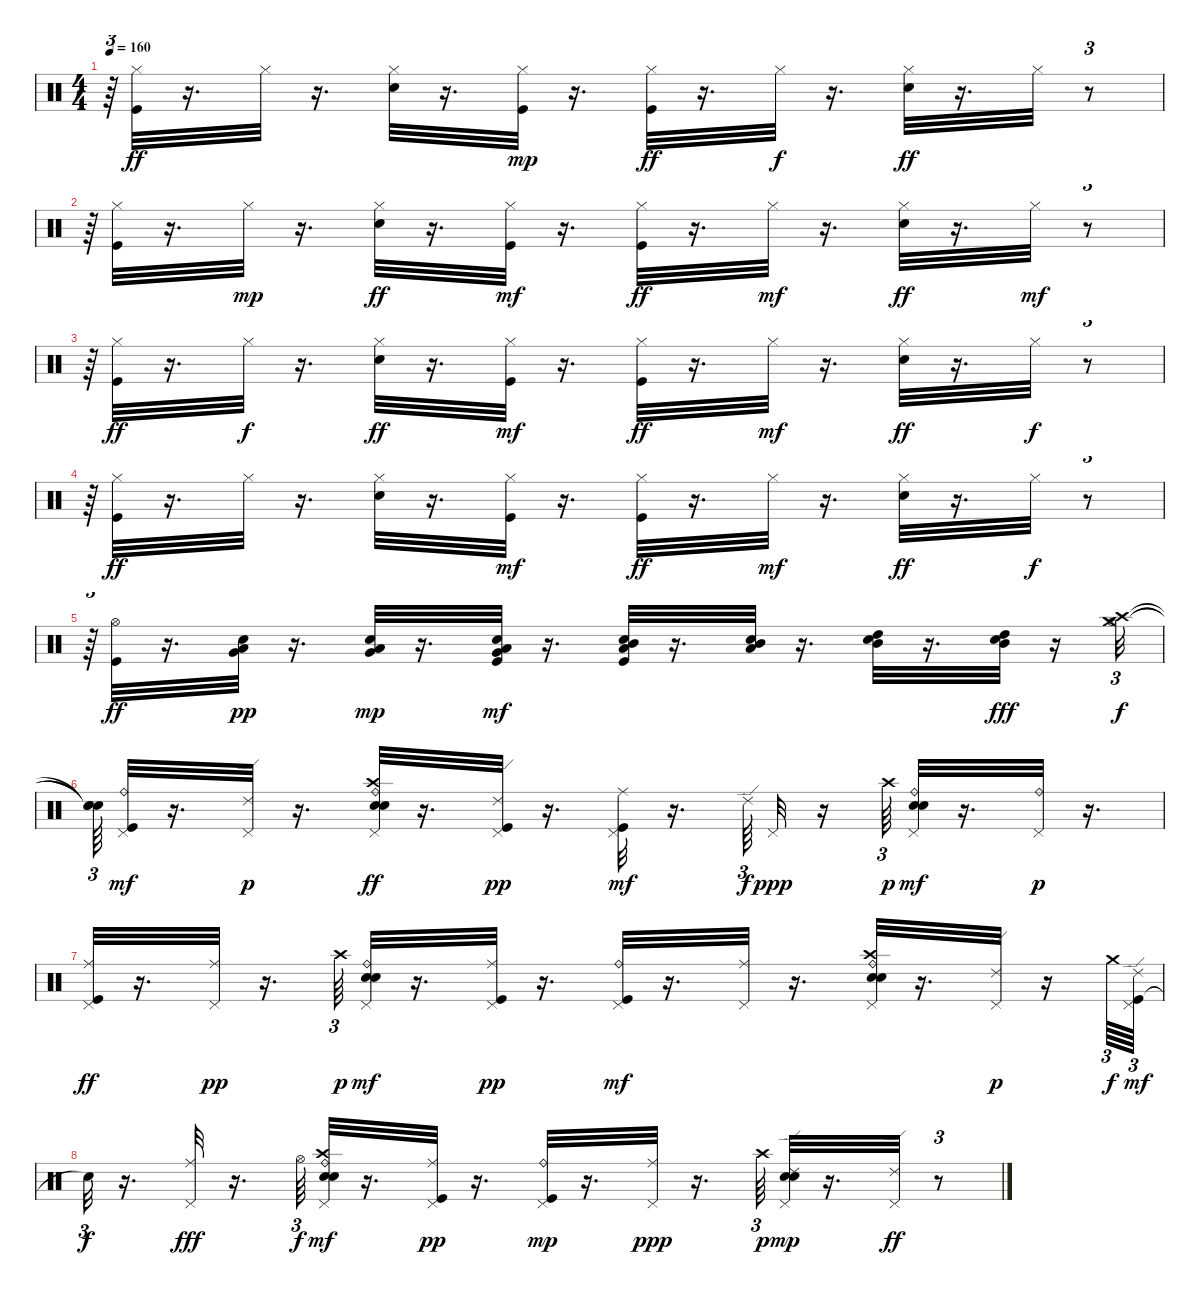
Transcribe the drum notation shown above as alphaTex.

\track "" {instrument percussion}
\staff {score}
\articulation defaults
\ts (4 4)
\tempo 160
\clef neutral
\ks c
r.64{tu (3 2) dy f} ("Kick (hit)" "Hi-Hat (closed)").32{dy ff} r.16{d} "Hi-Hat (closed)".32 r.16{d} ("Hi-Hat (closed)" "Electric Snare (hit)").32 r.16{d} ("Kick (hit)" "Hi-Hat (closed)").32{dy mp} r.16{d} ("Kick (hit)" "Hi-Hat (closed)").32{dy ff} r.16{d} "Hi-Hat (closed)".32{dy f} r.16{d} ("Hi-Hat (closed)" "Electric Snare (hit)").32{dy ff} r.16{d} "Hi-Hat (closed)".32 r.8{tu (3 2)} |
r.64{tu (3 2)} ("Kick (hit)" "Hi-Hat (closed)").32{volume 12 balance 8} r.16{d} "Hi-Hat (closed)".32{dy mp} r.16{d} ("Hi-Hat (closed)" "Electric Snare (hit)").32{dy ff} r.16{d} ("Kick (hit)" "Hi-Hat (closed)").32{dy mf} r.16{d} ("Kick (hit)" "Hi-Hat (closed)").32{dy ff} r.16{d} "Hi-Hat (closed)".32{dy mf} r.16{d} ("Hi-Hat (closed)" "Electric Snare (hit)").32{dy ff} r.16{d} "Hi-Hat (closed)".32{dy mf} r.8{tu (3 2)} |
r.64{tu (3 2)} ("Kick (hit)" "Hi-Hat (closed)").32{dy ff} r.16{d} "Hi-Hat (closed)".32{dy f} r.16{d} ("Hi-Hat (closed)" "Electric Snare (hit)").32{dy ff} r.16{d} ("Kick (hit)" "Hi-Hat (closed)").32{dy mf} r.16{d} ("Kick (hit)" "Hi-Hat (closed)").32{dy ff} r.16{d} "Hi-Hat (closed)".32{dy mf} r.16{d} ("Hi-Hat (closed)" "Electric Snare (hit)").32{dy ff} r.16{d} "Hi-Hat (closed)".32{dy f} r.8{tu (3 2)} |
r.64{tu (3 2)} ("Kick (hit)" "Hi-Hat (closed)").32{dy ff} r.16{d} "Hi-Hat (closed)".32 r.16{d} ("Hi-Hat (closed)" "Electric Snare (hit)").32 r.16{d} ("Kick (hit)" "Hi-Hat (closed)").32{dy mf} r.16{d} ("Kick (hit)" "Hi-Hat (closed)").32{dy ff} r.16{d} "Hi-Hat (closed)".32{dy mf} r.16{d} ("Hi-Hat (closed)" "Electric Snare (hit)").32{dy ff} r.16{d} "Hi-Hat (closed)".32{dy f} r.8{tu (3 2)} |
r.64{tu (3 2)} ("Kick (hit)" "Hi-Hat (open)").32{dy ff} r.16{d} ("Electric Snare (hit)" "Low Tom (hit)" "Very Low Tom (hit)").32{dy pp} r.16{d} ("Electric Snare (hit)" "Low Tom (hit)" "Very Low Tom (hit)").32{dy mp} r.16{d} ("Kick (hit)" "Electric Snare (hit)" "Low Tom (hit)" "Very Low Tom (hit)").32{dy mf} r.16{d} ("Kick (hit)" "Electric Snare (hit)" "Mid Tom (hit)" "Low Tom (hit)").32 r.16{d} ("Electric Snare (hit)" "Mid Tom (hit)" "Low Tom (hit)").32 r.16{d} ("Electric Snare (hit)" "High Tom (hit)" "Mid Tom (hit)").32 r.16{d} ("Electric Snare (hit)" "High Tom (hit)" "Mid Tom (hit)").32{dy fff} r.16 ("Crash high (hit)" "Crash medium (hit)" "Hi-Hat (open)").32{tu (3 2) dy f} |
("Snare (hit)"{t} "Snare (hit)"{t} "Snare (hit)"{t}).64{tu (3 2)} ("Kick (hit)" "Ride (bell)" "Pedal Hi-Hat (hit)").32{dy mf} r.16{d} ("Ride (edge) 2" "Pedal Hi-Hat (hit)").32{dy p} r.16{d} ("Electric Snare (hit)" "Crash high (hit)" "Snare (hit) 2" "Ride (bell)" "Pedal Hi-Hat (hit)").32{dy ff} r.16{d} ("Kick (hit)" "Ride (edge) 2" "Pedal Hi-Hat (hit)").32{dy pp} r.16{d} ("Kick (hit)" "Ride (middle)" "Pedal Hi-Hat (hit)").32{dy mf} r.16{d} "Ride (edge) 2".64{tu (3 2) dy f} "Pedal Hi-Hat (hit)".32{dy ppp} r.16 "Crash high (hit)".64{tu (3 2) dy p} ("Electric Snare (hit)" "Snare (hit) 2" "Ride (bell)" "Pedal Hi-Hat (hit)").32{dy mf} r.16{d} ("Ride (bell)" "Pedal Hi-Hat (hit)").32{dy p} r.16{d} |
("Kick (hit)" "Ride (middle)" "Pedal Hi-Hat (hit)").32{dy ff} r.16{d} ("Ride (middle)" "Pedal Hi-Hat (hit)").32{dy pp} r.16{d} "Crash high (hit)".64{tu (3 2) dy p} ("Electric Snare (hit)" "Snare (hit) 2" "Ride (bell)" "Pedal Hi-Hat (hit)").32{dy mf} r.16{d} ("Kick (hit)" "Ride (middle)" "Pedal Hi-Hat (hit)").32{dy pp} r.16{d} ("Kick (hit)" "Ride (bell)" "Pedal Hi-Hat (hit)").32{dy mf} r.16{d} ("Pedal Hi-Hat (hit)" "Ride (middle)").32 r.16{d} ("Electric Snare (hit)" "Crash high (hit)" "Snare (hit) 2" "Ride (bell)" "Pedal Hi-Hat (hit)").32 r.16{d} ("Ride (edge) 2" "Pedal Hi-Hat (hit)").32{dy p} r.16 "Crash medium (hit)".64{tu (3 2) dy f} ("Kick (hit)" "Ride (edge) 2" "Pedal Hi-Hat (hit)").64{tu (3 2) dy mf} |
"Snare (hit)"{t}.32{tu (3 2) dy f} r.16{d} ("Pedal Hi-Hat (hit)" "Ride (middle)").32{dy fff} r.16{d} "Hi-Hat (open)".64{tu (3 2) dy f} ("Electric Snare (hit)" "Crash high (hit)" "Snare (hit) 2" "Ride (bell)" "Pedal Hi-Hat (hit)").32{dy mf} r.16{d} ("Kick (hit)" "Ride (middle)" "Pedal Hi-Hat (hit)").32{dy pp} r.16{d} ("Kick (hit)" "Ride (bell)" "Pedal Hi-Hat (hit)").32{dy mp} r.16{d} ("Ride (middle)" "Pedal Hi-Hat (hit)").32{dy ppp} r.16{d} "Crash high (hit)".64{tu (3 2) dy p} ("Electric Snare (hit)" "Snare (hit) 2" "Ride (edge) 2" "Pedal Hi-Hat (hit)").32{dy mp} r.16{d} ("Pedal Hi-Hat (hit)" "Ride (edge) 2").32{dy ff} r.8{tu (3 2)}
